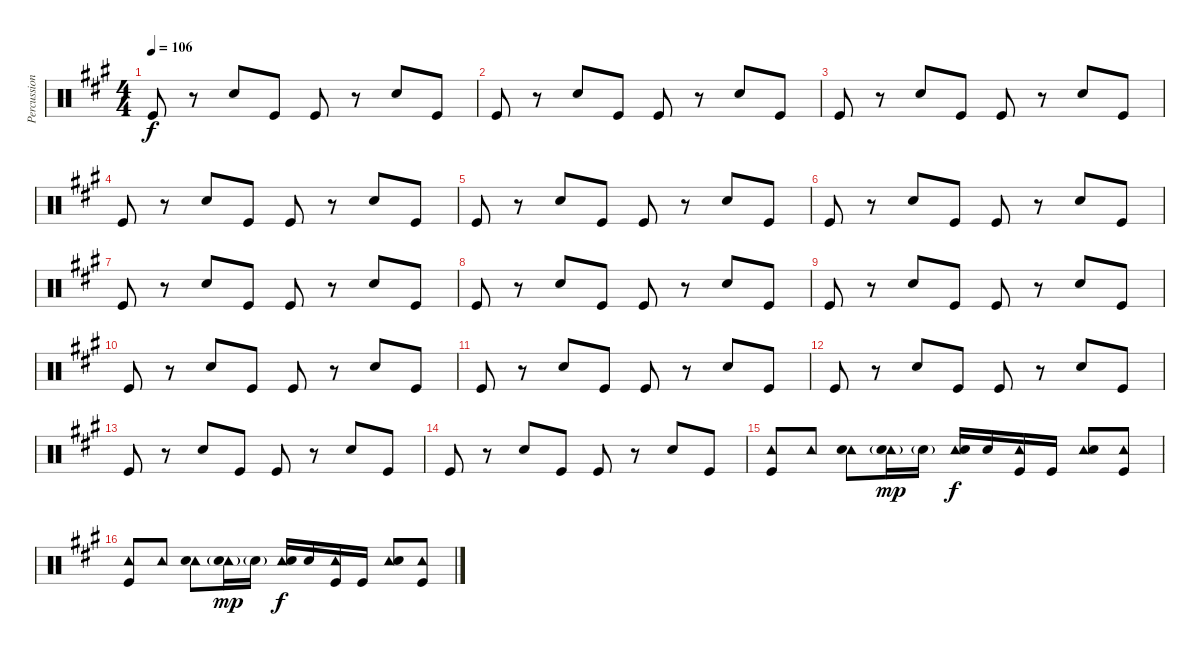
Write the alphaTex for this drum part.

\track ("Percussion" "Percussion") {instrument percussion}
\staff {score}
\articulation defaults
\ts (4 4)
\tempo 106
\clef neutral
\ks f#minor "Kick (hit)".8{dy f}
r.8 "Snare (hit) 2".8 "Kick (hit)".8 "Kick (hit)".8 r.8 "Snare (hit) 2".8 "Kick (hit)".8 |
"Kick (hit)".8 r.8 "Snare (hit) 2".8 "Kick (hit)".8 "Kick (hit)".8 r.8 "Snare (hit) 2".8 "Kick (hit)".8 |
"Kick (hit)".8 r.8 "Snare (hit) 2".8 "Kick (hit)".8 "Kick (hit)".8 r.8 "Snare (hit) 2".8 "Kick (hit)".8 |
"Kick (hit)".8 r.8 "Snare (hit) 2".8 "Kick (hit)".8 "Kick (hit)".8 r.8 "Snare (hit) 2".8 "Kick (hit)".8 |
"Kick (hit)".8 r.8 "Snare (hit) 2".8 "Kick (hit)".8 "Kick (hit)".8 r.8 "Snare (hit) 2".8 "Kick (hit)".8 |
"Kick (hit)".8 r.8 "Snare (hit) 2".8 "Kick (hit)".8 "Kick (hit)".8 r.8 "Snare (hit) 2".8 "Kick (hit)".8 |
"Kick (hit)".8 r.8 "Snare (hit) 2".8 "Kick (hit)".8 "Kick (hit)".8 r.8 "Snare (hit) 2".8 "Kick (hit)".8 |
"Kick (hit)".8 r.8 "Snare (hit) 2".8 "Kick (hit)".8 "Kick (hit)".8 r.8 "Snare (hit) 2".8 "Kick (hit)".8 |
"Kick (hit)".8 r.8 "Snare (hit) 2".8 "Kick (hit)".8 "Kick (hit)".8 r.8 "Snare (hit) 2".8 "Kick (hit)".8 |
"Kick (hit)".8 r.8 "Snare (hit) 2".8 "Kick (hit)".8 "Kick (hit)".8 r.8 "Snare (hit) 2".8 "Kick (hit)".8 |
"Kick (hit)".8 r.8 "Snare (hit) 2".8 "Kick (hit)".8 "Kick (hit)".8 r.8 "Snare (hit) 2".8 "Kick (hit)".8 |
"Kick (hit)".8 r.8 "Snare (hit) 2".8 "Kick (hit)".8 "Kick (hit)".8 r.8 "Snare (hit) 2".8 "Kick (hit)".8 |
"Kick (hit)".8 r.8 "Snare (hit) 2".8 "Kick (hit)".8 "Kick (hit)".8 r.8 "Snare (hit) 2".8 "Kick (hit)".8 |
"Kick (hit)".8 r.8 "Snare (hit) 2".8 "Kick (hit)".8 "Kick (hit)".8 r.8 "Snare (hit) 2".8 "Kick (hit)".8 |
("Tambourine (hit)" "Kick (hit)").8 "Tambourine (hit)".8 ("Tambourine (hit)" "Snare (hit) 2").8 ("Tambourine (hit)" "Snare (hit) 2"{g}).16{dy mp} "Snare (hit) 2"{g}.16 ("Tambourine (hit)" "Snare (hit) 2").16{dy f} "Snare (hit) 2".16 ("Tambourine (hit)" "Kick (hit)").16 "Kick (hit)".16 ("Tambourine (hit)" "Snare (hit) 2").8 ("Tambourine (hit)" "Kick (hit)").8 |
("Tambourine (hit)" "Kick (hit)").8 "Tambourine (hit)".8 ("Tambourine (hit)" "Snare (hit) 2").8 ("Tambourine (hit)" "Snare (hit) 2"{g}).16{dy mp} "Snare (hit) 2"{g}.16 ("Tambourine (hit)" "Snare (hit) 2").16{dy f} "Snare (hit) 2".16 ("Tambourine (hit)" "Kick (hit)").16 "Kick (hit)".16 ("Tambourine (hit)" "Snare (hit) 2").8 ("Tambourine (hit)" "Kick (hit)").8
